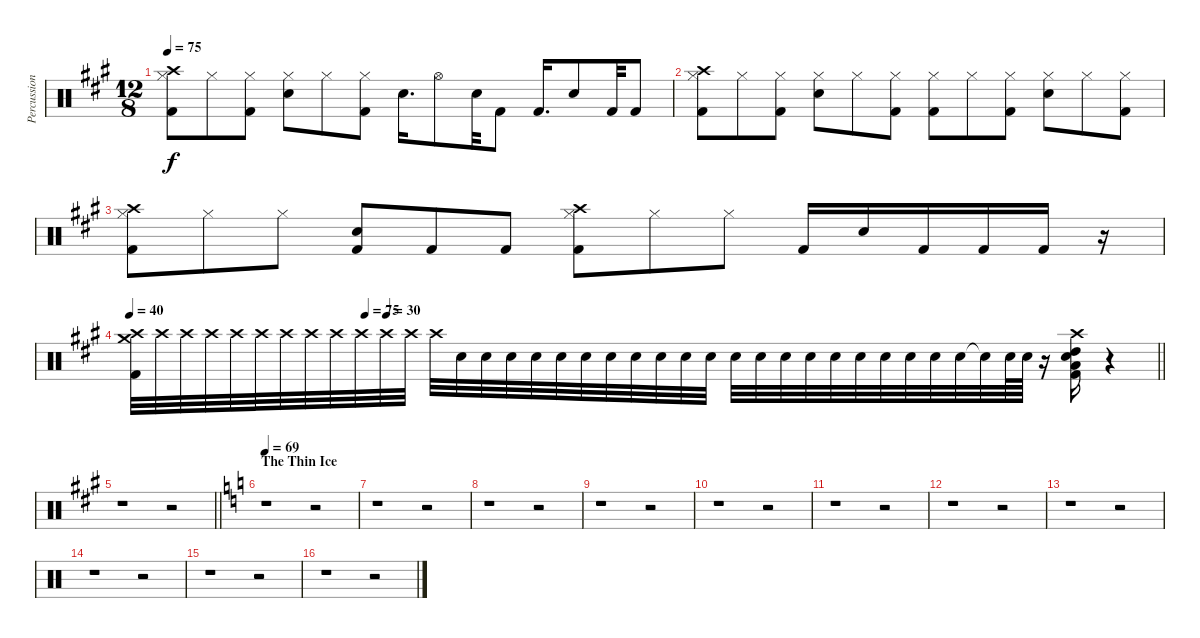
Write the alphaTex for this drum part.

\track ("Percussions" "Percussion") {instrument percussion}
\staff {score}
\articulation defaults
\ts (12 8)
\tempo 75
\clef neutral
\ks a
("Crash high (hit)" "Hi-Hat (closed)" "Kick (hit) 2").8{dy f} "Hi-Hat (closed)".8 ("Hi-Hat (closed)" "Kick (hit) 2").8 ("Hi-Hat (closed)" "Snare (hit) 2").8 "Hi-Hat (closed)".8 ("Hi-Hat (closed)" "Kick (hit) 2").8 "Snare (hit) 2".16{d} "Hi-Hat (open)".8 "Snare (hit) 2".32 "Kick (hit) 2".8 "Kick (hit) 2".16{d} "Snare (hit) 2".8 "Kick (hit) 2".32 "Kick (hit) 2".8 |
("Crash high (hit)" "Hi-Hat (closed)" "Kick (hit) 2").8 "Hi-Hat (closed)".8 ("Hi-Hat (closed)" "Kick (hit) 2").8 ("Hi-Hat (closed)" "Snare (hit) 2").8 "Hi-Hat (closed)".8 ("Hi-Hat (closed)" "Kick (hit) 2").8 ("Hi-Hat (closed)" "Kick (hit) 2").8 "Hi-Hat (closed)".8 ("Hi-Hat (closed)" "Kick (hit) 2").8 ("Hi-Hat (closed)" "Snare (hit) 2").8 "Hi-Hat (closed)".8 ("Hi-Hat (closed)" "Kick (hit) 2").8 |
("Crash high (hit)" "Hi-Hat (closed)" "Kick (hit) 2").8 "Hi-Hat (closed)".8 "Hi-Hat (closed)".8 ("Snare (hit) 2" "Kick (hit) 2").8 "Kick (hit) 2".8 "Kick (hit) 2".8 ("Crash high (hit)" "Hi-Hat (closed)" "Kick (hit) 2").8 "Hi-Hat (closed)".8 "Hi-Hat (closed)".8 "Kick (hit) 2".16 "Snare (hit) 2".16 "Kick (hit) 2".16 "Kick (hit) 2".16 "Kick (hit) 2".16 r.16 |
\tempo 40
\tempo (75 0.22916666666666666)
\tempo (30 0.25)
\barLineRight lightlight
("Crash high (hit)" "Kick (hit) 2" "Crash medium (hit)").32 "Crash high (hit)".32 "Crash high (hit)".32 "Crash high (hit)".32 "Crash high (hit)".32 "Crash high (hit)".32 "Crash high (hit)".32 "Crash high (hit)".32 "Crash high (hit)".32 "Crash high (hit)".32 "Crash high (hit)".32 "Crash high (hit)".32 "Crash high (hit)".32 "Snare (hit) 2".32 "Snare (hit) 2".32 "Snare (hit) 2".32 "Snare (hit) 2".32 "Snare (hit) 2".32 "Snare (hit) 2".32 "Snare (hit) 2".32 "Snare (hit) 2".32 "Snare (hit) 2".32 "Snare (hit) 2".32 "Snare (hit) 2".32 "Snare (hit) 2".32 "Snare (hit) 2".32 "Snare (hit) 2".32 "Snare (hit) 2".32 "Snare (hit) 2".32 "Snare (hit) 2".32 "Snare (hit) 2".32 "Snare (hit) 2".32 "Snare (hit) 2".32 "Snare (hit) 2".32 "Snare (hit) 2"{t}.32 "Snare (hit) 2".64 "Snare (hit) 2".64 r.16 ("Crash high (hit)" "Snare (hit) 2" "High Tom (hit)" "Low Floor Tom (hit)" "Kick (hit) 2").16 r.4 |
\barLineRight lightlight
r.1 r.2 |
\section ("" "The Thin Ice")
\tempo 110
\tempo 69
\ks c
r.1 r.2 |
r.1 r.2 |
r.1 r.2 |
r.1 r.2 |
r.1 r.2 |
r.1 r.2 |
r.1 r.2 |
r.1 r.2 |
r.1 r.2 |
r.1 r.2 |
r.1 r.2
